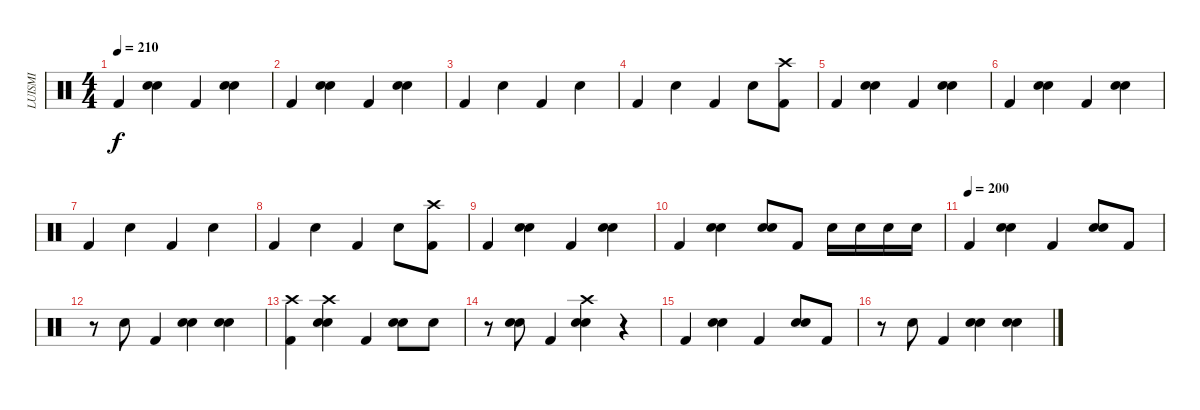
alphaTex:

\track ("LUISMI" "LUISMI") {instrument percussion}
\staff {score}
\articulation defaults
\ts (4 4)
\tempo 210
\clef neutral
\ks c "Kick (hit) 2".4{dy f}
("Electric Snare (hit)" "Snare (hit) 2").4 "Kick (hit) 2".4 ("Electric Snare (hit)" "Snare (hit) 2").4 |
"Kick (hit) 2".4 ("Electric Snare (hit)" "Snare (hit) 2").4 "Kick (hit) 2".4 ("Electric Snare (hit)" "Snare (hit) 2").4 |
"Kick (hit) 2".4 "Electric Snare (hit)".4 "Kick (hit) 2".4 "Electric Snare (hit)".4 |
"Kick (hit) 2".4 "Electric Snare (hit)".4 "Kick (hit) 2".4 "Electric Snare (hit)".8 ("Crash high (hit)" "Kick (hit) 2").8 |
"Kick (hit) 2".4 ("Electric Snare (hit)" "Snare (hit) 2").4 "Kick (hit) 2".4 ("Electric Snare (hit)" "Snare (hit) 2").4 |
"Kick (hit) 2".4 ("Electric Snare (hit)" "Snare (hit) 2").4 "Kick (hit) 2".4 ("Electric Snare (hit)" "Snare (hit) 2").4 |
"Kick (hit) 2".4 "Electric Snare (hit)".4 "Kick (hit) 2".4 "Electric Snare (hit)".4 |
"Kick (hit) 2".4 "Electric Snare (hit)".4 "Kick (hit) 2".4 "Electric Snare (hit)".8 ("Crash high (hit)" "Kick (hit) 2").8 |
"Kick (hit) 2".4 ("Electric Snare (hit)" "Snare (hit) 2").4 "Kick (hit) 2".4 ("Electric Snare (hit)" "Snare (hit) 2").4 |
"Kick (hit) 2".4 ("Electric Snare (hit)" "Snare (hit) 2").4 ("Electric Snare (hit)" "Snare (hit) 2").8 "Kick (hit) 2".8 "Electric Snare (hit)".16 "Electric Snare (hit)".16 "Electric Snare (hit)".16 "Electric Snare (hit)".16 |
\tempo (200)
"Kick (hit) 2".4 ("Electric Snare (hit)" "Snare (hit) 2").4 "Kick (hit) 2".4 ("Electric Snare (hit)" "Snare (hit) 2").8 "Kick (hit) 2".8 |
r.8 "Electric Snare (hit)".8 "Kick (hit) 2".4 ("Electric Snare (hit)" "Snare (hit) 2").4 ("Electric Snare (hit)" "Snare (hit) 2").4 |
("Crash high (hit)" "Kick (hit) 2").4 ("Crash high (hit)" "Electric Snare (hit)" "Snare (hit) 2").4 "Kick (hit) 2".4 ("Electric Snare (hit)" "Snare (hit) 2").8 "Snare (hit) 2".8 |
r.8 ("Electric Snare (hit)" "Snare (hit) 2").8 "Kick (hit) 2".4 ("Crash high (hit)" "Electric Snare (hit)" "Snare (hit) 2").4 r.4 |
"Kick (hit) 2".4 ("Electric Snare (hit)" "Snare (hit) 2").4 "Kick (hit) 2".4 ("Electric Snare (hit)" "Snare (hit) 2").8 "Kick (hit) 2".8 |
r.8 "Electric Snare (hit)".8 "Kick (hit) 2".4 ("Electric Snare (hit)" "Snare (hit) 2").4 ("Electric Snare (hit)" "Snare (hit) 2").4
